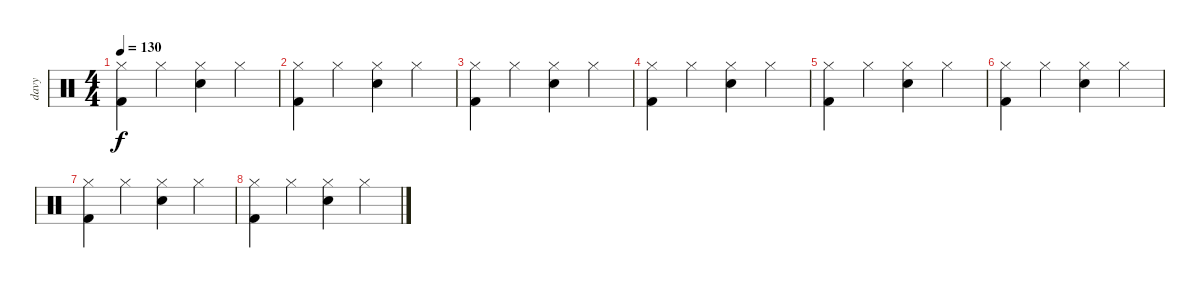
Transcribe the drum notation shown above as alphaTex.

\track ("davy" "davy") {instrument percussion}
\staff {score}
\articulation defaults
\ts (4 4)
\tempo 130
\clef neutral
\ks c
("Hi-Hat (closed)" "Kick (hit) 2").4{dy f} "Hi-Hat (closed)".4 ("Hi-Hat (closed)" "Snare (hit) 2").4 "Hi-Hat (closed)".4 |
("Hi-Hat (closed)" "Kick (hit) 2").4 "Hi-Hat (closed)".4 ("Hi-Hat (closed)" "Snare (hit) 2").4 "Hi-Hat (closed)".4 |
("Hi-Hat (closed)" "Kick (hit) 2").4 "Hi-Hat (closed)".4 ("Hi-Hat (closed)" "Snare (hit) 2").4 "Hi-Hat (closed)".4 |
("Hi-Hat (closed)" "Kick (hit) 2").4 "Hi-Hat (closed)".4 ("Hi-Hat (closed)" "Snare (hit) 2").4 "Hi-Hat (closed)".4 |
("Hi-Hat (closed)" "Kick (hit) 2").4 "Hi-Hat (closed)".4 ("Hi-Hat (closed)" "Snare (hit) 2").4 "Hi-Hat (closed)".4 |
("Hi-Hat (closed)" "Kick (hit) 2").4 "Hi-Hat (closed)".4 ("Hi-Hat (closed)" "Snare (hit) 2").4 "Hi-Hat (closed)".4 |
("Hi-Hat (closed)" "Kick (hit) 2").4 "Hi-Hat (closed)".4 ("Hi-Hat (closed)" "Snare (hit) 2").4 "Hi-Hat (closed)".4 |
("Hi-Hat (closed)" "Kick (hit) 2").4 "Hi-Hat (closed)".4 ("Hi-Hat (closed)" "Snare (hit) 2").4 "Hi-Hat (closed)".4
